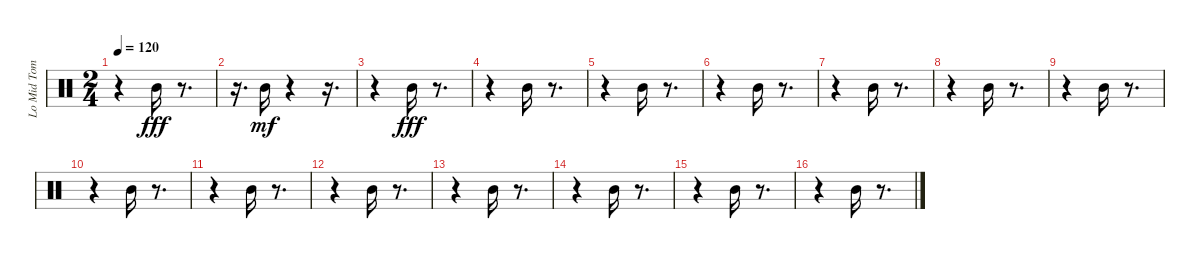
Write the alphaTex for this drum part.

\track ("Lo Mid Tom (1) (1) (1) (1)" "Lo Mid Tom") {instrument percussion}
\staff {score}
\articulation defaults
\ts (2 4)
\tempo 120
\clef neutral
\ks c
r.4{dy fff} "Mid Tom (hit)".16 r.8{d} |
r.16{d} "Mid Tom (hit)".16{dy mf} r.4 r.16{d} |
r.4 "Mid Tom (hit)".16{dy fff} r.8{d} |
r.4 "Mid Tom (hit)".16 r.8{d} |
r.4 "Mid Tom (hit)".16 r.8{d} |
r.4 "Mid Tom (hit)".16 r.8{d} |
r.4 "Mid Tom (hit)".16 r.8{d} |
r.4 "Mid Tom (hit)".16 r.8{d} |
r.4 "Mid Tom (hit)".16 r.8{d} |
r.4 "Mid Tom (hit)".16 r.8{d} |
r.4 "Mid Tom (hit)".16 r.8{d} |
r.4 "Mid Tom (hit)".16 r.8{d} |
r.4 "Mid Tom (hit)".16 r.8{d} |
r.4 "Mid Tom (hit)".16 r.8{d} |
r.4 "Mid Tom (hit)".16 r.8{d} |
r.4 "Mid Tom (hit)".16 r.8{d}
